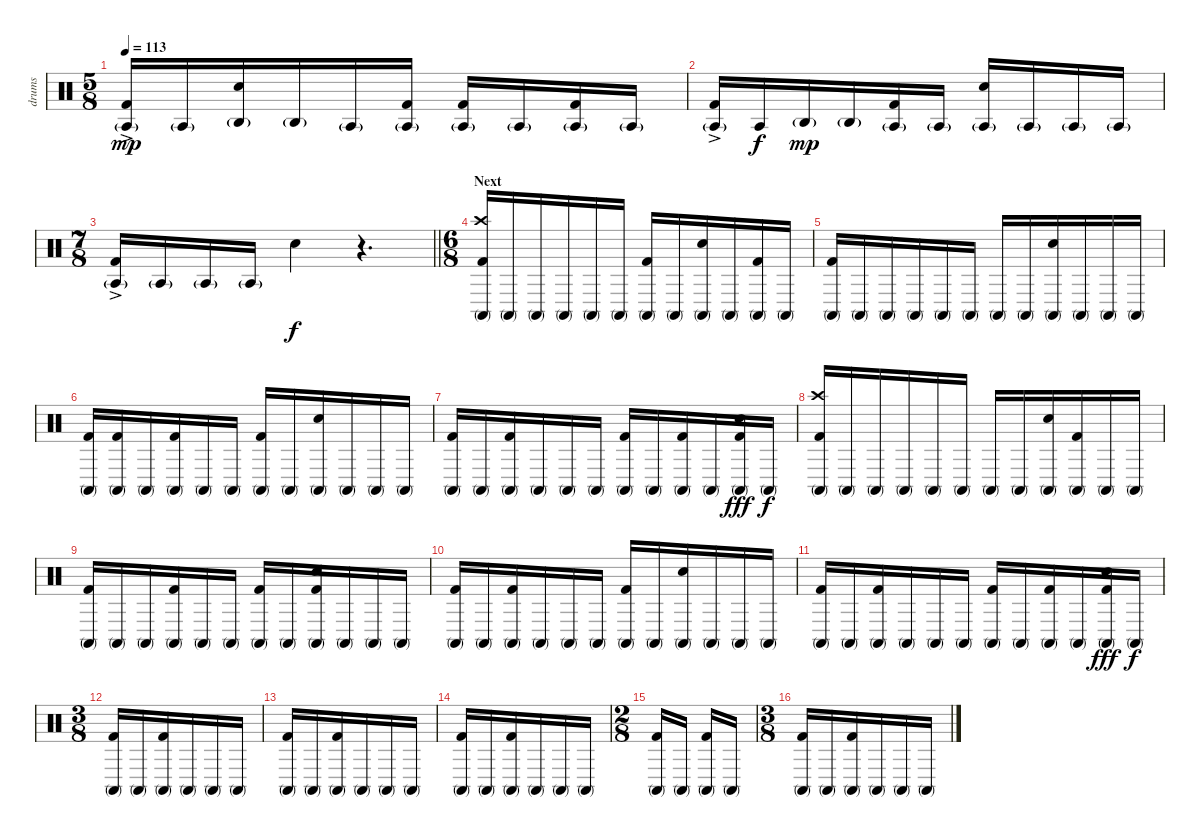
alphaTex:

\track ("drums" "drums") {instrument percussion}
\staff {score}
\articulation defaults
\ts (5 8)
\tempo 113
\clef neutral
\ks c
("Kick (hit) 2"{ac} "Agogo tow (hit)"{g}).16{dy mp} "Agogo tow (hit)"{g}.16 ("Electric Snare (hit)" "Agogo high (hit)"{g}).16 "Agogo high (hit)"{g}.16 "Agogo tow (hit)"{g}.16 ("Kick (hit) 2" "Agogo tow (hit)"{g}).16 ("Kick (hit) 2" "Agogo tow (hit)"{g}).16 "Agogo tow (hit)"{g}.16 ("Kick (hit) 2" "Agogo tow (hit)"{g}).16 "Agogo tow (hit)"{g}.16 |
("Kick (hit) 2"{ac} "Agogo tow (hit)"{g}).16 "Agogo tow (hit)".16{dy f} "Agogo high (hit)"{g}.16{dy mp} "Agogo high (hit)"{g}.16 ("Kick (hit) 2" "Agogo tow (hit)"{g}).16 "Agogo tow (hit)"{g}.16 ("Electric Snare (hit)" "Agogo tow (hit)"{g}).16 "Agogo tow (hit)"{g}.16 "Agogo tow (hit)"{g}.16 "Agogo tow (hit)"{g}.16 |
\ts (7 8)
\barLineRight lightlight
("Kick (hit) 2"{ac} "Agogo tow (hit)"{g}).16 "Agogo tow (hit)"{g}.16 "Agogo tow (hit)"{g}.16 "Agogo tow (hit)"{g}.16 "Electric Snare (hit)".4{dy f} r.4{d} |
\ts (6 8)
\section ("" "Next")
("Crash high (hit)" "Conga high (mute)" "Kick (hit) 2").16 "Conga high (mute)".16 "Conga high (mute)".16 "Conga high (mute)".16 "Conga high (mute)".16 "Conga high (mute)".16 ("Conga high (mute)" "Kick (hit) 2").16 "Conga high (mute)".16 ("Conga high (mute)" "Electric Snare (hit)").16 "Conga high (mute)".16 ("Conga high (mute)" "Kick (hit) 2").16 "Conga high (mute)".16 |
("Conga high (mute)" "Kick (hit) 2").16 "Conga high (mute)".16 "Conga high (mute)".16 "Conga high (mute)".16 "Conga high (mute)".16 "Conga high (mute)".16 "Conga high (mute)".16 "Conga high (mute)".16 ("Conga high (mute)" "Electric Snare (hit)").16 "Conga high (mute)".16 "Conga high (mute)".16 "Conga high (mute)".16 |
("Conga high (mute)" "Kick (hit) 2").16 ("Conga high (mute)" "Kick (hit) 2").16 "Conga high (mute)".16 ("Conga high (mute)" "Kick (hit) 2").16 "Conga high (mute)".16 "Conga high (mute)".16 ("Conga high (mute)" "Kick (hit) 2").16 "Conga high (mute)".16 ("Conga high (mute)" "Electric Snare (hit)").16 "Conga high (mute)".16 "Conga high (mute)".16 "Conga high (mute)".16 |
("Conga high (mute)" "Kick (hit) 2").16 "Conga high (mute)".16 ("Conga high (mute)" "Kick (hit) 2").16 "Conga high (mute)".16 "Conga high (mute)".16 "Conga high (mute)".16 ("Conga high (mute)" "Kick (hit) 2").16 "Conga high (mute)".16 ("Conga high (mute)" "Kick (hit) 2").16 "Conga high (mute)".16 ("Electric Snare (hit)" "Conga high (mute)" "Kick (hit) 2").16{dy fff} "Conga high (mute)".16{dy f} |
("Crash high (hit)" "Conga high (mute)" "Kick (hit) 2").16 "Conga high (mute)".16 "Conga high (mute)".16 "Conga high (mute)".16 "Conga high (mute)".16 "Conga high (mute)".16 "Conga high (mute)".16 "Conga high (mute)".16 ("Conga high (mute)" "Electric Snare (hit)").16 ("Conga high (mute)" "Kick (hit) 2").16 "Conga high (mute)".16 "Conga high (mute)".16 |
("Conga high (mute)" "Kick (hit) 2").16 "Conga high (mute)".16 "Conga high (mute)".16 ("Conga high (mute)" "Kick (hit) 2").16 "Conga high (mute)".16 "Conga high (mute)".16 ("Conga high (mute)" "Kick (hit) 2").16 "Conga high (mute)".16 ("Electric Snare (hit)" "Conga high (mute)" "Kick (hit) 2").16 "Conga high (mute)".16 "Conga high (mute)".16 "Conga high (mute)".16 |
("Conga high (mute)" "Kick (hit) 2").16 "Conga high (mute)".16 ("Conga high (mute)" "Kick (hit) 2").16 "Conga high (mute)".16 "Conga high (mute)".16 "Conga high (mute)".16 ("Conga high (mute)" "Kick (hit) 2").16 "Conga high (mute)".16 ("Conga high (mute)" "Electric Snare (hit)").16 "Conga high (mute)".16 "Conga high (mute)".16 "Conga high (mute)".16 |
("Conga high (mute)" "Kick (hit) 2").16 "Conga high (mute)".16 ("Conga high (mute)" "Kick (hit) 2").16 "Conga high (mute)".16 "Conga high (mute)".16 "Conga high (mute)".16 ("Conga high (mute)" "Kick (hit) 2").16 "Conga high (mute)".16 ("Conga high (mute)" "Kick (hit) 2").16 "Conga high (mute)".16 ("Electric Snare (hit)" "Conga high (mute)" "Kick (hit) 2").16{dy fff} "Conga high (mute)".16{dy f} |
\ts (3 8)
("Conga high (mute)" "Kick (hit) 2").16 "Conga high (mute)".16 ("Conga high (mute)" "Kick (hit) 2").16 "Conga high (mute)".16 "Conga high (mute)".16 "Conga high (mute)".16 |
("Conga high (mute)" "Kick (hit) 2").16 "Conga high (mute)".16 ("Conga high (mute)" "Kick (hit) 2").16 "Conga high (mute)".16 "Conga high (mute)".16 "Conga high (mute)".16 |
("Conga high (mute)" "Kick (hit) 2").16 "Conga high (mute)".16 ("Conga high (mute)" "Kick (hit) 2").16 "Conga high (mute)".16 "Conga high (mute)".16 "Conga high (mute)".16 |
\ts (2 8)
("Conga high (mute)" "Kick (hit) 2").16 "Conga high (mute)".16 ("Conga high (mute)" "Kick (hit) 2").16 "Conga high (mute)".16 |
\ts (3 8)
("Conga high (mute)" "Kick (hit) 2").16 "Conga high (mute)".16 ("Conga high (mute)" "Kick (hit) 2").16 "Conga high (mute)".16 "Conga high (mute)".16 "Conga high (mute)".16
